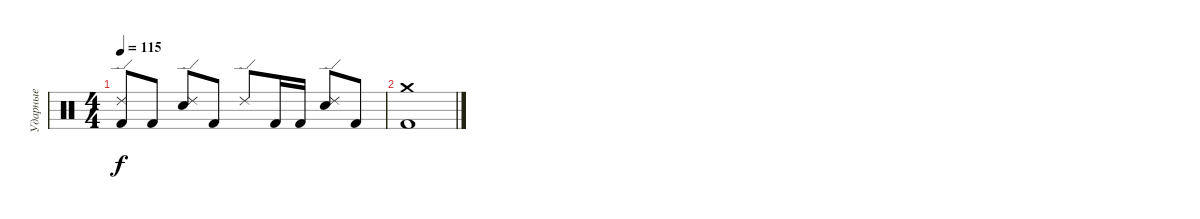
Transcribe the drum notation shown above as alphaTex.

\track ("Ударные" "Ударные") {instrument percussion}
\staff {score}
\articulation defaults
\ts (4 4)
\tempo 115
\clef neutral
\ks c
("Ride (edge) 2" "Kick (hit) 2").8{dy f} "Kick (hit) 2".8 ("Ride (edge) 2" "Electric Snare (hit)").8 "Kick (hit) 2".8 "Ride (edge) 2".8 "Kick (hit) 2".16 "Kick (hit) 2".16 ("Ride (edge) 2" "Electric Snare (hit)").8 "Kick (hit) 2".8 |
("Crash medium (hit)" "Kick (hit) 2").1
